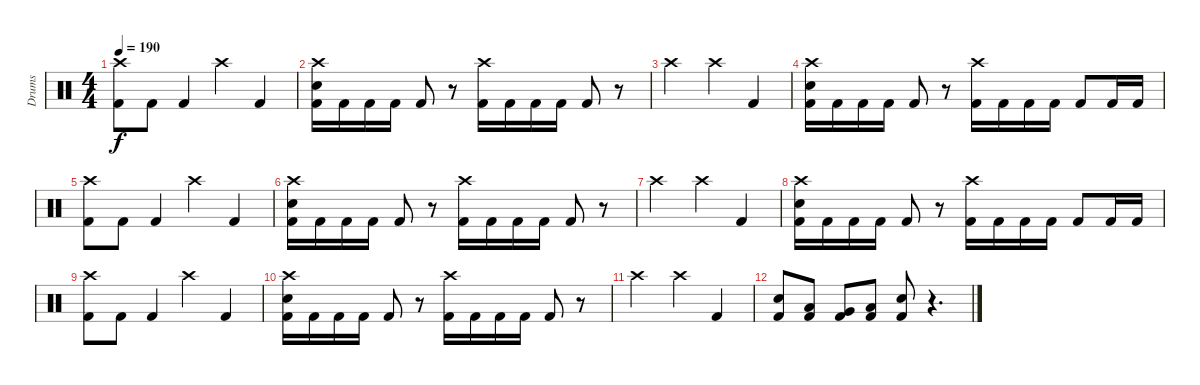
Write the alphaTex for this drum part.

\track ("Drums" "Drums") {instrument percussion}
\staff {score}
\articulation defaults
\ts (4 4)
\tempo 190
\clef neutral
\ks c
("Crash high (hit)" "Kick (hit) 2").8{dy f} "Kick (hit) 2".8 "Kick (hit) 2".4 "Crash high (hit)".4 "Kick (hit) 2".4 |
("Crash high (hit)" "Electric Snare (hit)" "Kick (hit) 2").16 "Kick (hit) 2".16 "Kick (hit) 2".16 "Kick (hit) 2".16 "Kick (hit) 2".8 r.8 ("Crash high (hit)" "Kick (hit) 2").16 "Kick (hit) 2".16 "Kick (hit) 2".16 "Kick (hit) 2".16 "Kick (hit) 2".8 r.8 |
"Crash high (hit)".2 "Crash high (hit)".4 "Kick (hit) 2".4 |
("Crash high (hit)" "Electric Snare (hit)" "Kick (hit) 2").16 "Kick (hit) 2".16 "Kick (hit) 2".16 "Kick (hit) 2".16 "Kick (hit) 2".8 r.8 ("Crash high (hit)" "Kick (hit) 2").16 "Kick (hit) 2".16 "Kick (hit) 2".16 "Kick (hit) 2".16 "Kick (hit) 2".8 "Kick (hit) 2".16 "Kick (hit) 2".16 |
("Crash high (hit)" "Kick (hit) 2").8 "Kick (hit) 2".8 "Kick (hit) 2".4 "Crash high (hit)".4 "Kick (hit) 2".4 |
("Crash high (hit)" "Electric Snare (hit)" "Kick (hit) 2").16 "Kick (hit) 2".16 "Kick (hit) 2".16 "Kick (hit) 2".16 "Kick (hit) 2".8 r.8 ("Crash high (hit)" "Kick (hit) 2").16 "Kick (hit) 2".16 "Kick (hit) 2".16 "Kick (hit) 2".16 "Kick (hit) 2".8 r.8 |
"Crash high (hit)".2 "Crash high (hit)".4 "Kick (hit) 2".4 |
("Crash high (hit)" "Electric Snare (hit)" "Kick (hit) 2").16 "Kick (hit) 2".16 "Kick (hit) 2".16 "Kick (hit) 2".16 "Kick (hit) 2".8 r.8 ("Crash high (hit)" "Kick (hit) 2").16 "Kick (hit) 2".16 "Kick (hit) 2".16 "Kick (hit) 2".16 "Kick (hit) 2".8 "Kick (hit) 2".16 "Kick (hit) 2".16 |
("Crash high (hit)" "Kick (hit) 2").8 "Kick (hit) 2".8 "Kick (hit) 2".4 "Crash high (hit)".4 "Kick (hit) 2".4 |
("Crash high (hit)" "Electric Snare (hit)" "Kick (hit) 2").16 "Kick (hit) 2".16 "Kick (hit) 2".16 "Kick (hit) 2".16 "Kick (hit) 2".8 r.8 ("Crash high (hit)" "Kick (hit) 2").16 "Kick (hit) 2".16 "Kick (hit) 2".16 "Kick (hit) 2".16 "Kick (hit) 2".8 r.8 |
"Crash high (hit)".2 "Crash high (hit)".4 "Kick (hit) 2".4 |
("Electric Snare (hit)" "Kick (hit) 2").8 ("Low Tom (hit)" "Kick (hit) 2").8 ("Very Low Tom (hit)" "Kick (hit) 2").8 ("Low Floor Tom (hit)" "Kick (hit) 2").8 ("Electric Snare (hit)" "Kick (hit) 2").8 r.4{d}
